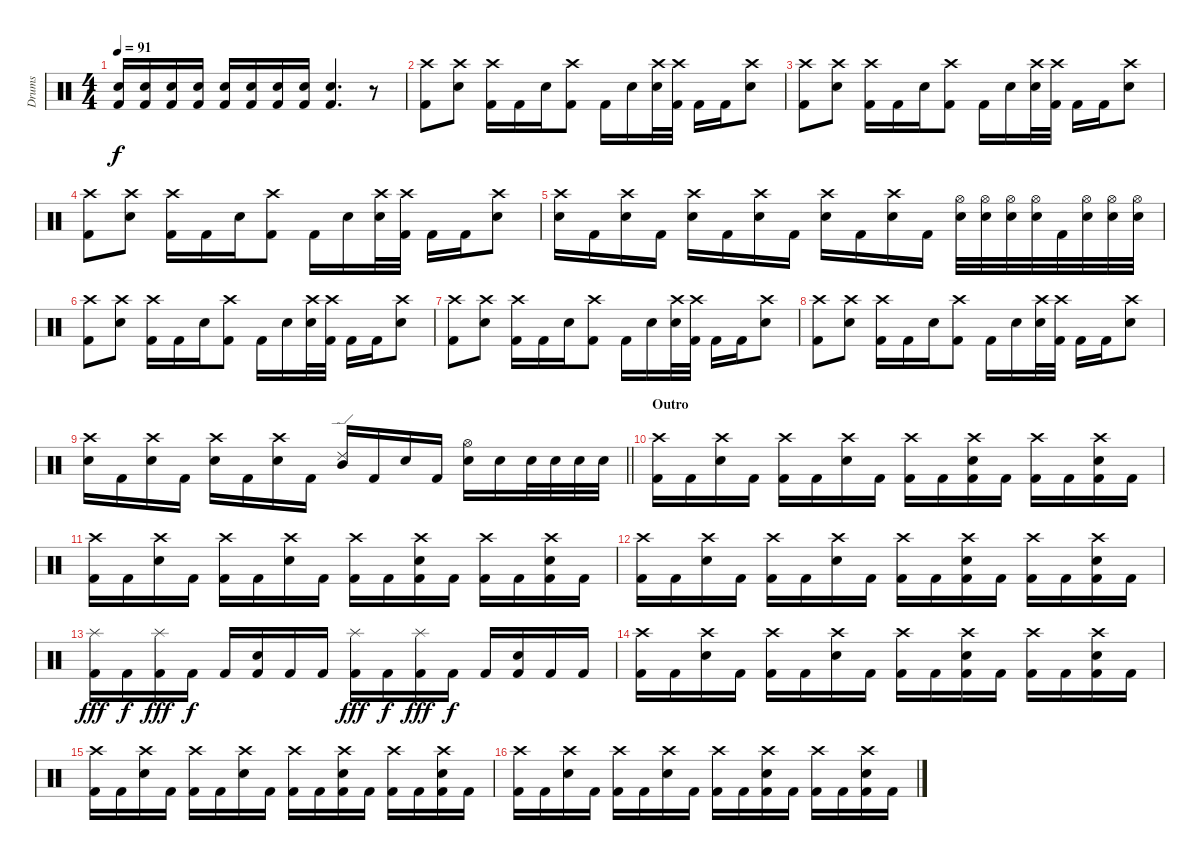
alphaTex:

\track ("Drums" "Drums") {instrument percussion}
\staff {score}
\articulation defaults
\ts (4 4)
\tempo 91
\clef neutral
\ks c
("Electric Snare (hit)" "Kick (hit) 2").16{dy f} ("Electric Snare (hit)" "Kick (hit) 2").16 ("Electric Snare (hit)" "Kick (hit) 2").16 ("Electric Snare (hit)" "Kick (hit) 2").16 ("Electric Snare (hit)" "Kick (hit) 2").16 ("Electric Snare (hit)" "Kick (hit) 2").16 ("Electric Snare (hit)" "Kick (hit) 2").16 ("Electric Snare (hit)" "Kick (hit) 2").16 ("Electric Snare (hit)" "Kick (hit) 2").4{d} r.8 |
("Crash high (hit)" "Kick (hit) 2").8 ("Crash high (hit)" "Electric Snare (hit)").8 ("Crash high (hit)" "Kick (hit) 2").16 "Kick (hit) 2".16 "Electric Snare (hit)".16 ("Crash high (hit)" "Kick (hit) 2").8 "Kick (hit) 2".16 "Electric Snare (hit)".16 ("Crash high (hit)" "Electric Snare (hit)").32 ("Crash high (hit)" "Kick (hit) 2").32 "Kick (hit) 2".16 "Kick (hit) 2".16 ("Crash high (hit)" "Electric Snare (hit)").8 |
("Crash high (hit)" "Kick (hit) 2").8 ("Crash high (hit)" "Electric Snare (hit)").8 ("Crash high (hit)" "Kick (hit) 2").16 "Kick (hit) 2".16 "Electric Snare (hit)".16 ("Crash high (hit)" "Kick (hit) 2").8 "Kick (hit) 2".16 "Electric Snare (hit)".16 ("Crash high (hit)" "Electric Snare (hit)").32 ("Crash high (hit)" "Kick (hit) 2").32 "Kick (hit) 2".16 "Kick (hit) 2".16 ("Crash high (hit)" "Electric Snare (hit)").8 |
("Crash high (hit)" "Kick (hit) 2").8 ("Crash high (hit)" "Electric Snare (hit)").8 ("Crash high (hit)" "Kick (hit) 2").16 "Kick (hit) 2".16 "Electric Snare (hit)".16 ("Crash high (hit)" "Kick (hit) 2").8 "Kick (hit) 2".16 "Electric Snare (hit)".16 ("Crash high (hit)" "Electric Snare (hit)").32 ("Crash high (hit)" "Kick (hit) 2").32 "Kick (hit) 2".16 "Kick (hit) 2".16 ("Crash high (hit)" "Electric Snare (hit)").8 |
("Crash high (hit)" "Electric Snare (hit)").16 "Kick (hit) 2".16 ("Crash high (hit)" "Electric Snare (hit)").16 "Kick (hit) 2".16 ("Crash high (hit)" "Electric Snare (hit)").16 "Kick (hit) 2".16 ("Crash high (hit)" "Electric Snare (hit)").16 "Kick (hit) 2".16 ("Crash high (hit)" "Electric Snare (hit)").16 "Kick (hit) 2".16 ("Crash high (hit)" "Electric Snare (hit)").16 "Kick (hit) 2".16 ("Hi-Hat (open)" "Electric Snare (hit)").32 ("Hi-Hat (open)" "Electric Snare (hit)").32 ("Hi-Hat (open)" "Electric Snare (hit)").32 ("Hi-Hat (open)" "Electric Snare (hit)").32 "Kick (hit) 2".32 ("Hi-Hat (open)" "Electric Snare (hit)").32 ("Hi-Hat (open)" "Electric Snare (hit)").32 ("Hi-Hat (open)" "Electric Snare (hit)").32 |
("Crash high (hit)" "Kick (hit) 2").8 ("Crash high (hit)" "Electric Snare (hit)").8 ("Crash high (hit)" "Kick (hit) 2").16 "Kick (hit) 2".16 "Electric Snare (hit)".16 ("Crash high (hit)" "Kick (hit) 2").8 "Kick (hit) 2".16 "Electric Snare (hit)".16 ("Crash high (hit)" "Electric Snare (hit)").32 ("Crash high (hit)" "Kick (hit) 2").32 "Kick (hit) 2".16 "Kick (hit) 2".16 ("Crash high (hit)" "Electric Snare (hit)").8 |
("Crash high (hit)" "Kick (hit) 2").8 ("Crash high (hit)" "Electric Snare (hit)").8 ("Crash high (hit)" "Kick (hit) 2").16 "Kick (hit) 2".16 "Electric Snare (hit)".16 ("Crash high (hit)" "Kick (hit) 2").8 "Kick (hit) 2".16 "Electric Snare (hit)".16 ("Crash high (hit)" "Electric Snare (hit)").32 ("Crash high (hit)" "Kick (hit) 2").32 "Kick (hit) 2".16 "Kick (hit) 2".16 ("Crash high (hit)" "Electric Snare (hit)").8 |
("Crash high (hit)" "Kick (hit) 2").8 ("Crash high (hit)" "Electric Snare (hit)").8 ("Crash high (hit)" "Kick (hit) 2").16 "Kick (hit) 2".16 "Electric Snare (hit)".16 ("Crash high (hit)" "Kick (hit) 2").8 "Kick (hit) 2".16 "Electric Snare (hit)".16 ("Crash high (hit)" "Electric Snare (hit)").32 ("Crash high (hit)" "Kick (hit) 2").32 "Kick (hit) 2".16 "Kick (hit) 2".16 ("Crash high (hit)" "Electric Snare (hit)").8 |
\barLineRight lightlight
("Crash high (hit)" "Electric Snare (hit)").16 "Kick (hit) 2".16 ("Crash high (hit)" "Electric Snare (hit)").16 "Kick (hit) 2".16 ("Crash high (hit)" "Electric Snare (hit)").16 "Kick (hit) 2".16 ("Crash high (hit)" "Electric Snare (hit)").16 "Kick (hit) 2".16 ("Ride (edge) 2" "Mid Tom (hit)").16 "Kick (hit) 2".16 "Electric Snare (hit)".16 "Kick (hit) 2".16 ("Hi-Hat (open)" "Electric Snare (hit)").16 "Electric Snare (hit)".16 "Electric Snare (hit)".32 "Electric Snare (hit)".32 "Electric Snare (hit)".32 "Electric Snare (hit)".32 |
\section ("" "Outro")
("Crash high (hit)" "Kick (hit) 2").16 "Kick (hit) 2".16 ("Crash high (hit)" "Electric Snare (hit)").16 "Kick (hit) 2".16 ("Crash high (hit)" "Kick (hit) 2").16 "Kick (hit) 2".16 ("Crash high (hit)" "Electric Snare (hit)").16 "Kick (hit) 2".16 ("Crash high (hit)" "Kick (hit) 2").16 "Kick (hit) 2".16 ("Crash high (hit)" "Electric Snare (hit)" "Kick (hit) 2").16 "Kick (hit) 2".16 ("Crash high (hit)" "Kick (hit) 2").16 "Kick (hit) 2".16 ("Crash high (hit)" "Electric Snare (hit)" "Kick (hit) 2").16 "Kick (hit) 2".16 |
("Crash high (hit)" "Kick (hit) 2").16 "Kick (hit) 2".16 ("Crash high (hit)" "Electric Snare (hit)").16 "Kick (hit) 2".16 ("Crash high (hit)" "Kick (hit) 2").16 "Kick (hit) 2".16 ("Crash high (hit)" "Electric Snare (hit)").16 "Kick (hit) 2".16 ("Crash high (hit)" "Kick (hit) 2").16 "Kick (hit) 2".16 ("Crash high (hit)" "Electric Snare (hit)" "Kick (hit) 2").16 "Kick (hit) 2".16 ("Crash high (hit)" "Kick (hit) 2").16 "Kick (hit) 2".16 ("Crash high (hit)" "Electric Snare (hit)" "Kick (hit) 2").16 "Kick (hit) 2".16 |
("Crash high (hit)" "Kick (hit) 2").16 "Kick (hit) 2".16 ("Crash high (hit)" "Electric Snare (hit)").16 "Kick (hit) 2".16 ("Crash high (hit)" "Kick (hit) 2").16 "Kick (hit) 2".16 ("Crash high (hit)" "Electric Snare (hit)").16 "Kick (hit) 2".16 ("Crash high (hit)" "Kick (hit) 2").16 "Kick (hit) 2".16 ("Crash high (hit)" "Electric Snare (hit)" "Kick (hit) 2").16 "Kick (hit) 2".16 ("Crash high (hit)" "Kick (hit) 2").16 "Kick (hit) 2".16 ("Crash high (hit)" "Electric Snare (hit)" "Kick (hit) 2").16 "Kick (hit) 2".16 |
("Splash (hit)" "Kick (hit) 2").16{dy fff} "Kick (hit) 2".16{dy f} ("Splash (hit)" "Kick (hit) 2").16{dy fff} "Kick (hit) 2".16{dy f} "Kick (hit) 2".16 ("Electric Snare (hit)" "Kick (hit) 2").16 "Kick (hit) 2".16 "Kick (hit) 2".16 ("Splash (hit)" "Kick (hit) 2").16{dy fff} "Kick (hit) 2".16{dy f} ("Splash (hit)" "Kick (hit) 2").16{dy fff} "Kick (hit) 2".16{dy f} "Kick (hit) 2".16 ("Electric Snare (hit)" "Kick (hit) 2").16 "Kick (hit) 2".16 "Kick (hit) 2".16 |
("Crash high (hit)" "Kick (hit) 2").16 "Kick (hit) 2".16 ("Crash high (hit)" "Electric Snare (hit)").16 "Kick (hit) 2".16 ("Crash high (hit)" "Kick (hit) 2").16 "Kick (hit) 2".16 ("Crash high (hit)" "Electric Snare (hit)").16 "Kick (hit) 2".16 ("Crash high (hit)" "Kick (hit) 2").16 "Kick (hit) 2".16 ("Crash high (hit)" "Electric Snare (hit)" "Kick (hit) 2").16 "Kick (hit) 2".16 ("Crash high (hit)" "Kick (hit) 2").16 "Kick (hit) 2".16 ("Crash high (hit)" "Electric Snare (hit)" "Kick (hit) 2").16 "Kick (hit) 2".16 |
("Crash high (hit)" "Kick (hit) 2").16 "Kick (hit) 2".16 ("Crash high (hit)" "Electric Snare (hit)").16 "Kick (hit) 2".16 ("Crash high (hit)" "Kick (hit) 2").16 "Kick (hit) 2".16 ("Crash high (hit)" "Electric Snare (hit)").16 "Kick (hit) 2".16 ("Crash high (hit)" "Kick (hit) 2").16 "Kick (hit) 2".16 ("Crash high (hit)" "Electric Snare (hit)" "Kick (hit) 2").16 "Kick (hit) 2".16 ("Crash high (hit)" "Kick (hit) 2").16 "Kick (hit) 2".16 ("Crash high (hit)" "Electric Snare (hit)" "Kick (hit) 2").16 "Kick (hit) 2".16 |
("Crash high (hit)" "Kick (hit) 2").16 "Kick (hit) 2".16 ("Crash high (hit)" "Electric Snare (hit)").16 "Kick (hit) 2".16 ("Crash high (hit)" "Kick (hit) 2").16 "Kick (hit) 2".16 ("Crash high (hit)" "Electric Snare (hit)").16 "Kick (hit) 2".16 ("Crash high (hit)" "Kick (hit) 2").16 "Kick (hit) 2".16 ("Crash high (hit)" "Electric Snare (hit)" "Kick (hit) 2").16 "Kick (hit) 2".16 ("Crash high (hit)" "Kick (hit) 2").16 "Kick (hit) 2".16 ("Crash high (hit)" "Electric Snare (hit)" "Kick (hit) 2").16 "Kick (hit) 2".16
